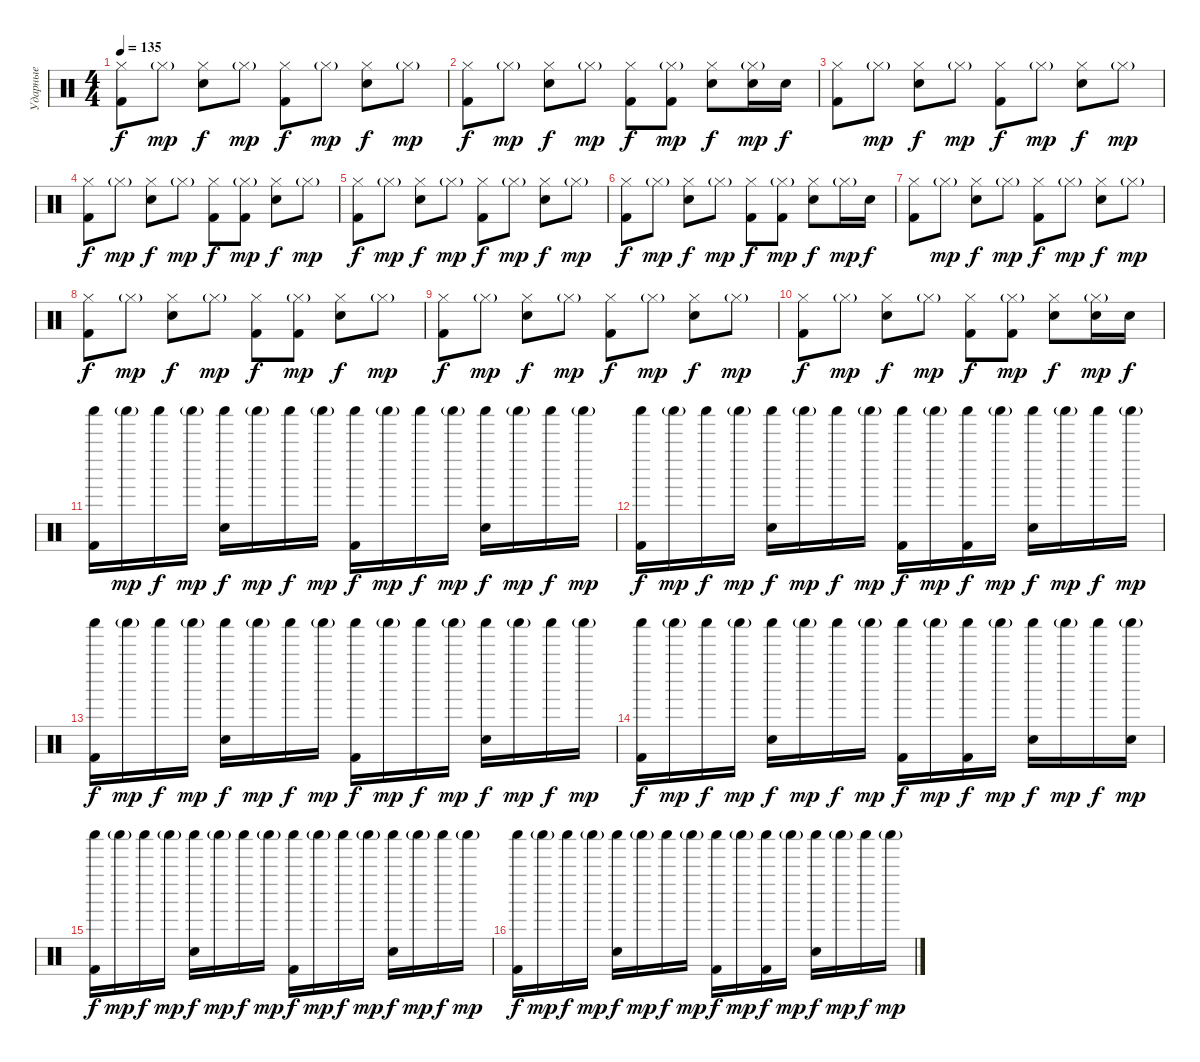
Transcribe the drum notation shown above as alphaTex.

\track ("Ударные" "Ударные") {instrument percussion}
\staff {score}
\articulation defaults
\ts (4 4)
\tempo 135
\clef neutral
\ks c
("Hi-Hat (closed)" "Kick (hit) 2").8{dy f} "Hi-Hat (closed)"{g}.8{dy mp} ("Hi-Hat (closed)" "Snare (hit) 2").8{dy f} "Hi-Hat (closed)"{g}.8{dy mp} ("Hi-Hat (closed)" "Kick (hit) 2").8{dy f} "Hi-Hat (closed)"{g}.8{dy mp} ("Hi-Hat (closed)" "Snare (hit) 2").8{dy f} "Hi-Hat (closed)"{g}.8{dy mp} |
("Hi-Hat (closed)" "Kick (hit) 2").8{dy f} "Hi-Hat (closed)"{g}.8{dy mp} ("Hi-Hat (closed)" "Snare (hit) 2").8{dy f} "Hi-Hat (closed)"{g}.8{dy mp} ("Hi-Hat (closed)" "Kick (hit) 2").8{dy f} ("Hi-Hat (closed)"{g} "Kick (hit) 2").8{dy mp} ("Hi-Hat (closed)" "Snare (hit) 2").8{dy f} ("Hi-Hat (closed)"{g} "Snare (hit) 2").16{dy mp} "Snare (hit) 2".16{dy f} |
("Hi-Hat (closed)" "Kick (hit) 2").8 "Hi-Hat (closed)"{g}.8{dy mp} ("Hi-Hat (closed)" "Snare (hit) 2").8{dy f} "Hi-Hat (closed)"{g}.8{dy mp} ("Hi-Hat (closed)" "Kick (hit) 2").8{dy f} "Hi-Hat (closed)"{g}.8{dy mp} ("Hi-Hat (closed)" "Snare (hit) 2").8{dy f} "Hi-Hat (closed)"{g}.8{dy mp} |
("Hi-Hat (closed)" "Kick (hit) 2").8{dy f} "Hi-Hat (closed)"{g}.8{dy mp} ("Hi-Hat (closed)" "Snare (hit) 2").8{dy f} "Hi-Hat (closed)"{g}.8{dy mp} ("Hi-Hat (closed)" "Kick (hit) 2").8{dy f} ("Hi-Hat (closed)"{g} "Kick (hit) 2").8{dy mp} ("Hi-Hat (closed)" "Snare (hit) 2").8{dy f} "Hi-Hat (closed)"{g}.8{dy mp} |
("Hi-Hat (closed)" "Kick (hit) 2").8{dy f} "Hi-Hat (closed)"{g}.8{dy mp} ("Hi-Hat (closed)" "Snare (hit) 2").8{dy f} "Hi-Hat (closed)"{g}.8{dy mp} ("Hi-Hat (closed)" "Kick (hit) 2").8{dy f} "Hi-Hat (closed)"{g}.8{dy mp} ("Hi-Hat (closed)" "Snare (hit) 2").8{dy f} "Hi-Hat (closed)"{g}.8{dy mp} |
("Hi-Hat (closed)" "Kick (hit) 2").8{dy f} "Hi-Hat (closed)"{g}.8{dy mp} ("Hi-Hat (closed)" "Snare (hit) 2").8{dy f} "Hi-Hat (closed)"{g}.8{dy mp} ("Hi-Hat (closed)" "Kick (hit) 2").8{dy f} ("Hi-Hat (closed)"{g} "Kick (hit) 2").8{dy mp} ("Hi-Hat (closed)" "Snare (hit) 2").8{dy f} "Hi-Hat (closed)"{g}.16{dy mp} "Snare (hit) 2".16{dy f} |
("Hi-Hat (closed)" "Kick (hit) 2").8 "Hi-Hat (closed)"{g}.8{dy mp} ("Hi-Hat (closed)" "Snare (hit) 2").8{dy f} "Hi-Hat (closed)"{g}.8{dy mp} ("Hi-Hat (closed)" "Kick (hit) 2").8{dy f} "Hi-Hat (closed)"{g}.8{dy mp} ("Hi-Hat (closed)" "Snare (hit) 2").8{dy f} "Hi-Hat (closed)"{g}.8{dy mp} |
("Hi-Hat (closed)" "Kick (hit) 2").8{dy f} "Hi-Hat (closed)"{g}.8{dy mp} ("Hi-Hat (closed)" "Snare (hit) 2").8{dy f} "Hi-Hat (closed)"{g}.8{dy mp} ("Hi-Hat (closed)" "Kick (hit) 2").8{dy f} ("Hi-Hat (closed)"{g} "Kick (hit) 2").8{dy mp} ("Hi-Hat (closed)" "Snare (hit) 2").8{dy f} "Hi-Hat (closed)"{g}.8{dy mp} |
("Hi-Hat (closed)" "Kick (hit) 2").8{dy f} "Hi-Hat (closed)"{g}.8{dy mp} ("Hi-Hat (closed)" "Snare (hit) 2").8{dy f} "Hi-Hat (closed)"{g}.8{dy mp} ("Hi-Hat (closed)" "Kick (hit) 2").8{dy f} "Hi-Hat (closed)"{g}.8{dy mp} ("Hi-Hat (closed)" "Snare (hit) 2").8{dy f} "Hi-Hat (closed)"{g}.8{dy mp} |
("Hi-Hat (closed)" "Kick (hit) 2").8{dy f} "Hi-Hat (closed)"{g}.8{dy mp} ("Hi-Hat (closed)" "Snare (hit) 2").8{dy f} "Hi-Hat (closed)"{g}.8{dy mp} ("Hi-Hat (closed)" "Kick (hit) 2").8{dy f} ("Hi-Hat (closed)"{g} "Kick (hit) 2").8{dy mp} ("Hi-Hat (closed)" "Snare (hit) 2").8{dy f} ("Hi-Hat (closed)"{g} "Snare (hit) 2").16{dy mp} "Snare (hit) 2".16{dy f} |
("Shaker (hit)" "Kick (hit) 2").16 "Shaker (hit)"{g}.16{dy mp} "Shaker (hit)".16{dy f} "Shaker (hit)"{g}.16{dy mp} ("Shaker (hit)" "Snare (hit) 2").16{dy f} "Shaker (hit)"{g}.16{dy mp} "Shaker (hit)".16{dy f} "Shaker (hit)"{g}.16{dy mp} ("Shaker (hit)" "Kick (hit) 2").16{dy f} "Shaker (hit)"{g}.16{dy mp} "Shaker (hit)".16{dy f} "Shaker (hit)"{g}.16{dy mp} ("Shaker (hit)" "Snare (hit) 2").16{dy f} "Shaker (hit)"{g}.16{dy mp} "Shaker (hit)".16{dy f} "Shaker (hit)"{g}.16{dy mp} |
("Shaker (hit)" "Kick (hit) 2").16{dy f} "Shaker (hit)"{g}.16{dy mp} "Shaker (hit)".16{dy f} "Shaker (hit)"{g}.16{dy mp} ("Shaker (hit)" "Snare (hit) 2").16{dy f} "Shaker (hit)"{g}.16{dy mp} "Shaker (hit)".16{dy f} "Shaker (hit)"{g}.16{dy mp} ("Shaker (hit)" "Kick (hit) 2").16{dy f} "Shaker (hit)"{g}.16{dy mp} ("Shaker (hit)" "Kick (hit) 2").16{dy f} "Shaker (hit)"{g}.16{dy mp} ("Shaker (hit)" "Snare (hit) 2").16{dy f} "Shaker (hit)"{g}.16{dy mp} "Shaker (hit)".16{dy f} "Shaker (hit)"{g}.16{dy mp} |
("Shaker (hit)" "Kick (hit) 2").16{dy f} "Shaker (hit)"{g}.16{dy mp} "Shaker (hit)".16{dy f} "Shaker (hit)"{g}.16{dy mp} ("Shaker (hit)" "Snare (hit) 2").16{dy f} "Shaker (hit)"{g}.16{dy mp} "Shaker (hit)".16{dy f} "Shaker (hit)"{g}.16{dy mp} ("Shaker (hit)" "Kick (hit) 2").16{dy f} "Shaker (hit)"{g}.16{dy mp} "Shaker (hit)".16{dy f} "Shaker (hit)"{g}.16{dy mp} ("Shaker (hit)" "Snare (hit) 2").16{dy f} "Shaker (hit)"{g}.16{dy mp} "Shaker (hit)".16{dy f} "Shaker (hit)"{g}.16{dy mp} |
("Shaker (hit)" "Kick (hit) 2").16{dy f} "Shaker (hit)"{g}.16{dy mp} "Shaker (hit)".16{dy f} "Shaker (hit)"{g}.16{dy mp} ("Shaker (hit)" "Snare (hit) 2").16{dy f} "Shaker (hit)"{g}.16{dy mp} "Shaker (hit)".16{dy f} "Shaker (hit)"{g}.16{dy mp} ("Shaker (hit)" "Kick (hit) 2").16{dy f} "Shaker (hit)"{g}.16{dy mp} ("Shaker (hit)" "Kick (hit) 2").16{dy f} "Shaker (hit)"{g}.16{dy mp} ("Shaker (hit)" "Snare (hit) 2").16{dy f} "Shaker (hit)"{g}.16{dy mp} "Shaker (hit)".16{dy f} ("Shaker (hit)"{g} "Snare (hit) 2").16{dy mp} |
("Shaker (hit)" "Kick (hit) 2").16{dy f} "Shaker (hit)"{g}.16{dy mp} "Shaker (hit)".16{dy f} "Shaker (hit)"{g}.16{dy mp} ("Shaker (hit)" "Snare (hit) 2").16{dy f} "Shaker (hit)"{g}.16{dy mp} "Shaker (hit)".16{dy f} "Shaker (hit)"{g}.16{dy mp} ("Shaker (hit)" "Kick (hit) 2").16{dy f} "Shaker (hit)"{g}.16{dy mp} "Shaker (hit)".16{dy f} "Shaker (hit)"{g}.16{dy mp} ("Shaker (hit)" "Snare (hit) 2").16{dy f} "Shaker (hit)"{g}.16{dy mp} "Shaker (hit)".16{dy f} "Shaker (hit)"{g}.16{dy mp} |
("Shaker (hit)" "Kick (hit) 2").16{dy f} "Shaker (hit)"{g}.16{dy mp} "Shaker (hit)".16{dy f} "Shaker (hit)"{g}.16{dy mp} ("Shaker (hit)" "Snare (hit) 2").16{dy f} "Shaker (hit)"{g}.16{dy mp} "Shaker (hit)".16{dy f} "Shaker (hit)"{g}.16{dy mp} ("Shaker (hit)" "Kick (hit) 2").16{dy f} "Shaker (hit)"{g}.16{dy mp} ("Shaker (hit)" "Kick (hit) 2").16{dy f} "Shaker (hit)"{g}.16{dy mp} ("Shaker (hit)" "Snare (hit) 2").16{dy f} "Shaker (hit)"{g}.16{dy mp} "Shaker (hit)".16{dy f} "Shaker (hit)"{g}.16{dy mp}
